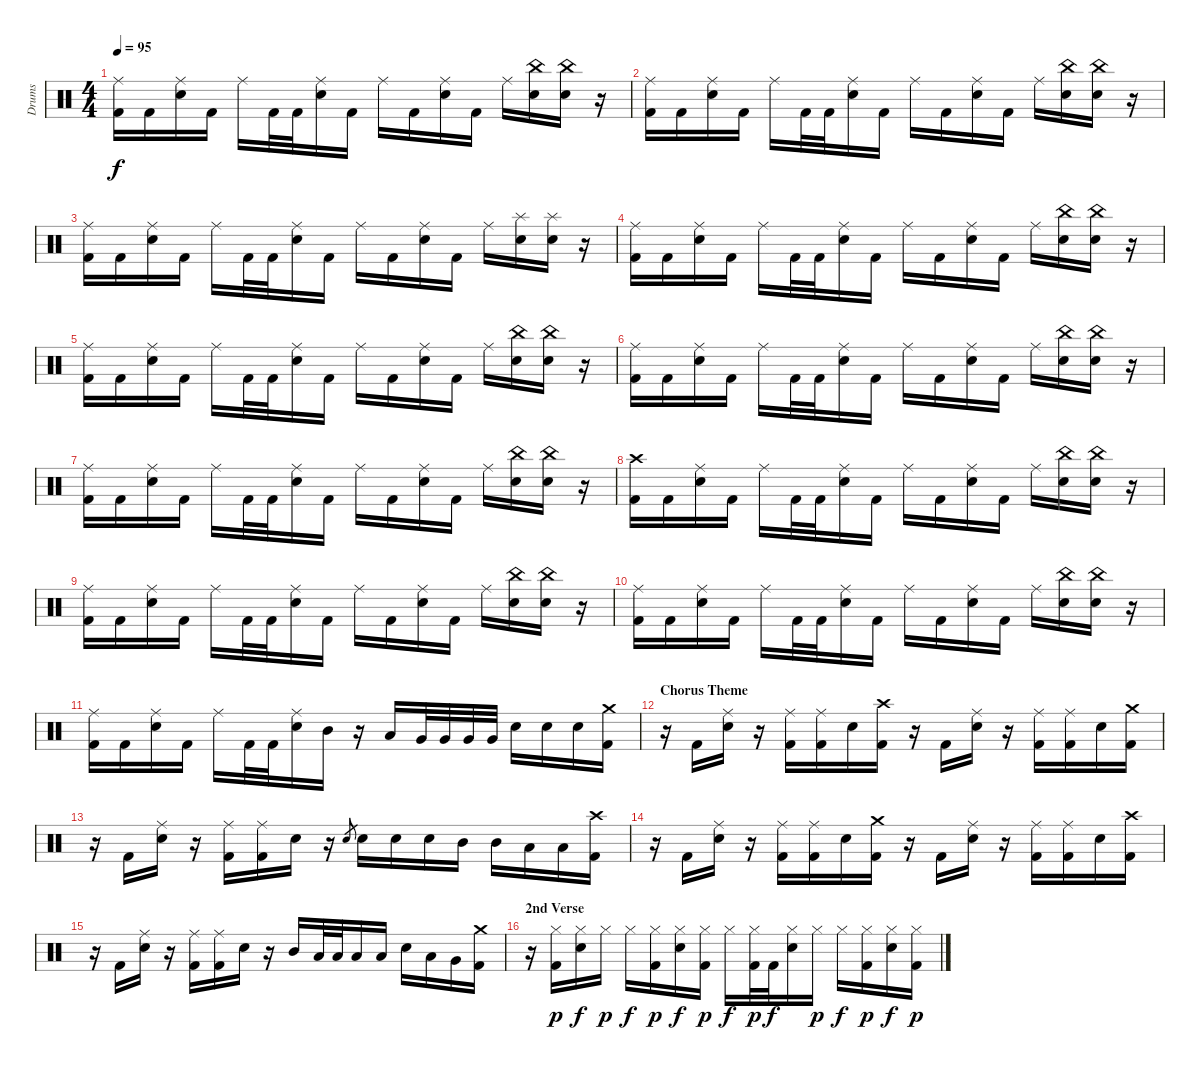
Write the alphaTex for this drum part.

\track ("Drums" "Drums") {instrument percussion}
\staff {score}
\articulation defaults
\ts (4 4)
\tempo 95
\clef neutral
\ks c
("Ride (middle)" "Kick (hit) 2").16{dy f} "Kick (hit) 2".16 ("Ride (middle)" "Snare (hit) 2").16 "Kick (hit) 2".16 "Ride (middle)".16 "Kick (hit) 2".32 "Kick (hit) 2".32 ("Ride (middle)" "Snare (hit) 2").16 "Kick (hit) 2".16 "Ride (middle)".16 "Kick (hit) 2".16 ("Ride (middle)" "Snare (hit) 2").16 "Kick (hit) 2".16 "Ride (middle)".16 ("China (hit)" "Snare (hit) 2").16 ("China (hit)" "Snare (hit) 2").16 r.16 |
("Ride (middle)" "Kick (hit) 2").16 "Kick (hit) 2".16 ("Ride (middle)" "Snare (hit) 2").16 "Kick (hit) 2".16 "Ride (middle)".16 "Kick (hit) 2".32 "Kick (hit) 2".32 ("Ride (middle)" "Snare (hit) 2").16 "Kick (hit) 2".16 "Ride (middle)".16 "Kick (hit) 2".16 ("Ride (middle)" "Snare (hit) 2").16 "Kick (hit) 2".16 "Ride (middle)".16 ("China (hit)" "Snare (hit) 2").16 ("China (hit)" "Snare (hit) 2").16 r.16 |
("Ride (middle)" "Kick (hit) 2").16 "Kick (hit) 2".16 ("Ride (middle)" "Snare (hit) 2").16 "Kick (hit) 2".16 "Ride (middle)".16 "Kick (hit) 2".32 "Kick (hit) 2".32 ("Ride (middle)" "Snare (hit) 2").16 "Kick (hit) 2".16 "Ride (middle)".16 "Kick (hit) 2".16 ("Ride (middle)" "Snare (hit) 2").16 "Kick (hit) 2".16 "Ride (middle)".16 ("Splash (hit)" "Snare (hit) 2").16 ("Splash (hit)" "Snare (hit) 2").16 r.16 |
("Ride (middle)" "Kick (hit) 2").16 "Kick (hit) 2".16 ("Ride (middle)" "Snare (hit) 2").16 "Kick (hit) 2".16 "Ride (middle)".16 "Kick (hit) 2".32 "Kick (hit) 2".32 ("Ride (middle)" "Snare (hit) 2").16 "Kick (hit) 2".16 "Ride (middle)".16 "Kick (hit) 2".16 ("Ride (middle)" "Snare (hit) 2").16 "Kick (hit) 2".16 "Ride (middle)".16 ("China (hit)" "Snare (hit) 2").16 ("China (hit)" "Snare (hit) 2").16 r.16 |
("Ride (middle)" "Kick (hit) 2").16 "Kick (hit) 2".16 ("Ride (middle)" "Snare (hit) 2").16 "Kick (hit) 2".16 "Ride (middle)".16 "Kick (hit) 2".32 "Kick (hit) 2".32 ("Ride (middle)" "Snare (hit) 2").16 "Kick (hit) 2".16 "Ride (middle)".16 "Kick (hit) 2".16 ("Ride (middle)" "Snare (hit) 2").16 "Kick (hit) 2".16 "Ride (middle)".16 ("China (hit)" "Snare (hit) 2").16 ("China (hit)" "Snare (hit) 2").16 r.16 |
("Ride (middle)" "Kick (hit) 2").16 "Kick (hit) 2".16 ("Ride (middle)" "Snare (hit) 2").16 "Kick (hit) 2".16 "Ride (middle)".16 "Kick (hit) 2".32 "Kick (hit) 2".32 ("Ride (middle)" "Snare (hit) 2").16 "Kick (hit) 2".16 "Ride (middle)".16 "Kick (hit) 2".16 ("Ride (middle)" "Snare (hit) 2").16 "Kick (hit) 2".16 "Ride (middle)".16 ("China (hit)" "Snare (hit) 2").16 ("China (hit)" "Snare (hit) 2").16 r.16 |
("Ride (middle)" "Kick (hit) 2").16 "Kick (hit) 2".16 ("Ride (middle)" "Snare (hit) 2").16 "Kick (hit) 2".16 "Ride (middle)".16 "Kick (hit) 2".32 "Kick (hit) 2".32 ("Ride (middle)" "Snare (hit) 2").16 "Kick (hit) 2".16 "Ride (middle)".16 "Kick (hit) 2".16 ("Ride (middle)" "Snare (hit) 2").16 "Kick (hit) 2".16 "Ride (middle)".16 ("China (hit)" "Snare (hit) 2").16 ("China (hit)" "Snare (hit) 2").16 r.16 |
("Crash high (hit)" "Kick (hit) 2").16 "Kick (hit) 2".16 ("Ride (middle)" "Snare (hit) 2").16 "Kick (hit) 2".16 "Ride (middle)".16 "Kick (hit) 2".32 "Kick (hit) 2".32 ("Ride (middle)" "Snare (hit) 2").16 "Kick (hit) 2".16 "Ride (middle)".16 "Kick (hit) 2".16 ("Ride (middle)" "Snare (hit) 2").16 "Kick (hit) 2".16 "Ride (middle)".16 ("China (hit)" "Snare (hit) 2").16 ("China (hit)" "Snare (hit) 2").16 r.16 |
("Ride (middle)" "Kick (hit) 2").16 "Kick (hit) 2".16 ("Ride (middle)" "Snare (hit) 2").16 "Kick (hit) 2".16 "Ride (middle)".16 "Kick (hit) 2".32 "Kick (hit) 2".32 ("Ride (middle)" "Snare (hit) 2").16 "Kick (hit) 2".16 "Ride (middle)".16 "Kick (hit) 2".16 ("Ride (middle)" "Snare (hit) 2").16 "Kick (hit) 2".16 "Ride (middle)".16 ("China (hit)" "Snare (hit) 2").16 ("China (hit)" "Snare (hit) 2").16 r.16 |
("Ride (middle)" "Kick (hit) 2").16 "Kick (hit) 2".16 ("Ride (middle)" "Snare (hit) 2").16 "Kick (hit) 2".16 "Ride (middle)".16 "Kick (hit) 2".32 "Kick (hit) 2".32 ("Ride (middle)" "Snare (hit) 2").16 "Kick (hit) 2".16 "Ride (middle)".16 "Kick (hit) 2".16 ("Ride (middle)" "Snare (hit) 2").16 "Kick (hit) 2".16 "Ride (middle)".16 ("China (hit)" "Snare (hit) 2").16 ("China (hit)" "Snare (hit) 2").16 r.16 |
("Ride (middle)" "Kick (hit) 2").16 "Kick (hit) 2".16 ("Ride (middle)" "Snare (hit) 2").16 "Kick (hit) 2".16 "Ride (middle)".16 "Kick (hit) 2".32 "Kick (hit) 2".32 ("Ride (middle)" "Snare (hit) 2").16 "Mid Tom (hit)".16 r.16 "Low Tom (hit)".16 "Very Low Tom (hit)".32 "Very Low Tom (hit)".32 "Very Low Tom (hit)".32 "Very Low Tom (hit)".32 "Snare (hit) 2".16 "Snare (hit) 2".16 "Snare (hit) 2".16 ("Crash medium (hit)" "Kick (hit) 2").16 |
\section ("" "Chorus Theme")
r.16 "Kick (hit) 2".16 ("Ride (middle)" "Snare (hit) 2").16 r.16 ("Ride (middle)" "Kick (hit) 2").16 ("Ride (middle)" "Kick (hit) 2").16 "Snare (hit) 2".16 ("Crash high (hit)" "Kick (hit) 2").16 r.16 "Kick (hit) 2".16 ("Ride (middle)" "Snare (hit) 2").16 r.16 ("Ride (middle)" "Kick (hit) 2").16 ("Ride (middle)" "Kick (hit) 2").16 "Snare (hit) 2".16 ("Crash medium (hit)" "Kick (hit) 2").16 |
r.16 "Kick (hit) 2".16 ("Ride (middle)" "Snare (hit) 2").16 r.16 ("Ride (middle)" "Kick (hit) 2").16 ("Ride (middle)" "Kick (hit) 2").16 "Snare (hit) 2".16 r.16 "Snare (hit) 2".8{gr} "Snare (hit) 2".16 "Snare (hit) 2".16 "Snare (hit) 2".16 "Mid Tom (hit)".16 "Mid Tom (hit)".16 "Low Tom (hit)".16 "Low Tom (hit)".16 ("Crash high (hit)" "Kick (hit) 2").16 |
r.16 "Kick (hit) 2".16 ("Ride (middle)" "Snare (hit) 2").16 r.16 ("Ride (middle)" "Kick (hit) 2").16 ("Ride (middle)" "Kick (hit) 2").16 "Snare (hit) 2".16 ("Crash medium (hit)" "Kick (hit) 2").16 r.16 "Kick (hit) 2".16 ("Ride (middle)" "Snare (hit) 2").16 r.16 ("Ride (middle)" "Kick (hit) 2").16 ("Ride (middle)" "Kick (hit) 2").16 "Snare (hit) 2".16 ("Crash high (hit)" "Kick (hit) 2").16 |
r.16 "Kick (hit) 2".16 ("Ride (middle)" "Snare (hit) 2").16 r.16 ("Ride (middle)" "Kick (hit) 2").16 ("Ride (middle)" "Kick (hit) 2").16 "Snare (hit) 2".16 r.16 "Mid Tom (hit)".16 "Low Tom (hit)".32 "Low Tom (hit)".32 "Low Tom (hit)".16 "Low Tom (hit)".16 "Snare (hit) 2".16 "Low Tom (hit)".16 "Very Low Tom (hit)".16 ("Crash medium (hit)" "Kick (hit) 2").16 |
\section ("" "2nd Verse")
r.16 ("Hi-Hat (closed)" "Kick (hit) 2").16{dy p} ("Hi-Hat (closed)" "Snare (hit) 2").16{dy f} "Hi-Hat (closed)".16{dy p} "Hi-Hat (closed)".16{dy f} ("Hi-Hat (closed)" "Kick (hit) 2").16{dy p} ("Hi-Hat (closed)" "Snare (hit) 2").16{dy f} ("Hi-Hat (closed)" "Kick (hit) 2").16{dy p} "Hi-Hat (closed)".16{dy f} ("Hi-Hat (closed)" "Kick (hit) 2").32{dy p} "Kick (hit) 2".32{dy f} ("Hi-Hat (closed)" "Snare (hit) 2").16 "Hi-Hat (closed)".16{dy p} "Hi-Hat (closed)".16{dy f} ("Hi-Hat (closed)" "Kick (hit) 2").16{dy p} ("Hi-Hat (closed)" "Snare (hit) 2").16{dy f} ("Hi-Hat (closed)" "Kick (hit) 2").16{dy p}
